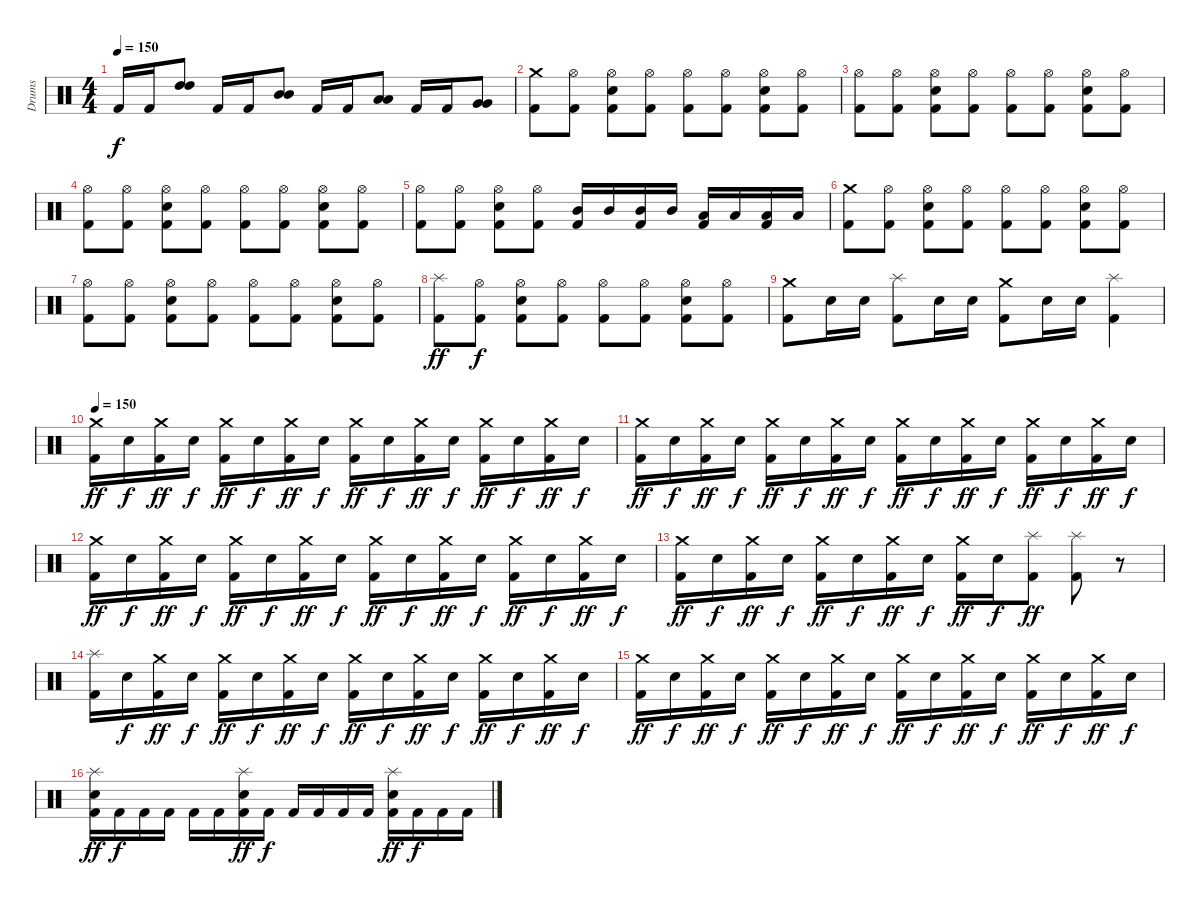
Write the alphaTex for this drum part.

\track ("Drums" "Drums") {instrument percussion}
\staff {score}
\articulation defaults
\ts (4 4)
\tempo 150
\clef neutral
\ks c "Kick (hit) 2".16{dy f} "Kick (hit) 2".16
("High Tom (hit)" "High Tom (hit)").8 "Kick (hit) 2".16 "Kick (hit) 2".16 ("Mid Tom (hit)" "Mid Tom (hit)").8 "Kick (hit) 2".16 "Kick (hit) 2".16 ("Low Tom (hit)" "Low Tom (hit)").8 "Kick (hit) 2".16 "Kick (hit) 2".16 ("Very Low Tom (hit)" "Very Low Tom (hit)").8 |
("Crash medium (hit)" "Kick (hit) 2").8 ("Hi-Hat (open)" "Kick (hit) 2").8 ("Hi-Hat (open)" "Electric Snare (hit)" "Kick (hit) 2").8 ("Hi-Hat (open)" "Kick (hit) 2").8 ("Hi-Hat (open)" "Kick (hit) 2").8 ("Hi-Hat (open)" "Kick (hit) 2").8 ("Hi-Hat (open)" "Electric Snare (hit)" "Kick (hit) 2").8 ("Hi-Hat (open)" "Kick (hit) 2").8 |
("Hi-Hat (open)" "Kick (hit) 2").8 ("Hi-Hat (open)" "Kick (hit) 2").8 ("Hi-Hat (open)" "Electric Snare (hit)" "Kick (hit) 2").8 ("Hi-Hat (open)" "Kick (hit) 2").8 ("Hi-Hat (open)" "Kick (hit) 2").8 ("Hi-Hat (open)" "Kick (hit) 2").8 ("Hi-Hat (open)" "Electric Snare (hit)" "Kick (hit) 2").8 ("Hi-Hat (open)" "Kick (hit) 2").8 |
("Hi-Hat (open)" "Kick (hit) 2").8 ("Hi-Hat (open)" "Kick (hit) 2").8 ("Hi-Hat (open)" "Electric Snare (hit)" "Kick (hit) 2").8 ("Hi-Hat (open)" "Kick (hit) 2").8 ("Hi-Hat (open)" "Kick (hit) 2").8 ("Hi-Hat (open)" "Kick (hit) 2").8 ("Hi-Hat (open)" "Electric Snare (hit)" "Kick (hit) 2").8 ("Hi-Hat (open)" "Kick (hit) 2").8 |
("Hi-Hat (open)" "Kick (hit) 2").8 ("Hi-Hat (open)" "Kick (hit) 2").8 ("Hi-Hat (open)" "Electric Snare (hit)" "Kick (hit) 2").8 ("Hi-Hat (open)" "Kick (hit) 2").8 ("Mid Tom (hit)" "Kick (hit) 2").16 "Mid Tom (hit)".16 ("Mid Tom (hit)" "Kick (hit) 2").16 "Mid Tom (hit)".16 ("Low Tom (hit)" "Kick (hit) 2").16 "Low Tom (hit)".16 ("Low Tom (hit)" "Kick (hit) 2").16 "Low Tom (hit)".16 |
("Crash medium (hit)" "Kick (hit) 2").8 ("Hi-Hat (open)" "Kick (hit) 2").8 ("Hi-Hat (open)" "Electric Snare (hit)" "Kick (hit) 2").8 ("Hi-Hat (open)" "Kick (hit) 2").8 ("Hi-Hat (open)" "Kick (hit) 2").8 ("Hi-Hat (open)" "Kick (hit) 2").8 ("Hi-Hat (open)" "Electric Snare (hit)" "Kick (hit) 2").8 ("Hi-Hat (open)" "Kick (hit) 2").8 |
("Hi-Hat (open)" "Kick (hit) 2").8 ("Hi-Hat (open)" "Kick (hit) 2").8 ("Hi-Hat (open)" "Electric Snare (hit)" "Kick (hit) 2").8 ("Hi-Hat (open)" "Kick (hit) 2").8 ("Hi-Hat (open)" "Kick (hit) 2").8 ("Hi-Hat (open)" "Kick (hit) 2").8 ("Hi-Hat (open)" "Electric Snare (hit)" "Kick (hit) 2").8 ("Hi-Hat (open)" "Kick (hit) 2").8 |
("Splash (hit)" "Kick (hit) 2").8{dy ff} ("Hi-Hat (open)" "Kick (hit) 2").8{dy f} ("Hi-Hat (open)" "Electric Snare (hit)" "Kick (hit) 2").8 ("Hi-Hat (open)" "Kick (hit) 2").8 ("Hi-Hat (open)" "Kick (hit) 2").8 ("Hi-Hat (open)" "Kick (hit) 2").8 ("Hi-Hat (open)" "Electric Snare (hit)" "Kick (hit) 2").8 ("Hi-Hat (open)" "Kick (hit) 2").8 |
("Crash medium (hit)" "Kick (hit) 2").8 "Electric Snare (hit)".16 "Electric Snare (hit)".16 ("Splash (hit)" "Kick (hit) 2").8 "Electric Snare (hit)".16 "Electric Snare (hit)".16 ("Crash medium (hit)" "Kick (hit) 2").8 "Electric Snare (hit)".16 "Electric Snare (hit)".16 ("Splash (hit)" "Kick (hit) 2").4 |
\tempo 150
("Crash medium (hit)" "Kick (hit) 2").16{dy ff} "Electric Snare (hit)".16{dy f} ("Crash medium (hit)" "Kick (hit) 2").16{dy ff} "Electric Snare (hit)".16{dy f} ("Crash medium (hit)" "Kick (hit) 2").16{dy ff} "Electric Snare (hit)".16{dy f} ("Crash medium (hit)" "Kick (hit) 2").16{dy ff} "Electric Snare (hit)".16{dy f} ("Crash medium (hit)" "Kick (hit) 2").16{dy ff} "Electric Snare (hit)".16{dy f} ("Crash medium (hit)" "Kick (hit) 2").16{dy ff} "Electric Snare (hit)".16{dy f} ("Crash medium (hit)" "Kick (hit) 2").16{dy ff} "Electric Snare (hit)".16{dy f} ("Crash medium (hit)" "Kick (hit) 2").16{dy ff} "Electric Snare (hit)".16{dy f} |
("Crash medium (hit)" "Kick (hit) 2").16{dy ff} "Electric Snare (hit)".16{dy f} ("Crash medium (hit)" "Kick (hit) 2").16{dy ff} "Electric Snare (hit)".16{dy f} ("Crash medium (hit)" "Kick (hit) 2").16{dy ff} "Electric Snare (hit)".16{dy f} ("Crash medium (hit)" "Kick (hit) 2").16{dy ff} "Electric Snare (hit)".16{dy f} ("Crash medium (hit)" "Kick (hit) 2").16{dy ff} "Electric Snare (hit)".16{dy f} ("Crash medium (hit)" "Kick (hit) 2").16{dy ff} "Electric Snare (hit)".16{dy f} ("Crash medium (hit)" "Kick (hit) 2").16{dy ff} "Electric Snare (hit)".16{dy f} ("Crash medium (hit)" "Kick (hit) 2").16{dy ff} "Electric Snare (hit)".16{dy f} |
("Crash medium (hit)" "Kick (hit) 2").16{dy ff} "Electric Snare (hit)".16{dy f} ("Crash medium (hit)" "Kick (hit) 2").16{dy ff} "Electric Snare (hit)".16{dy f} ("Crash medium (hit)" "Kick (hit) 2").16{dy ff} "Electric Snare (hit)".16{dy f} ("Crash medium (hit)" "Kick (hit) 2").16{dy ff} "Electric Snare (hit)".16{dy f} ("Crash medium (hit)" "Kick (hit) 2").16{dy ff} "Electric Snare (hit)".16{dy f} ("Crash medium (hit)" "Kick (hit) 2").16{dy ff} "Electric Snare (hit)".16{dy f} ("Crash medium (hit)" "Kick (hit) 2").16{dy ff} "Electric Snare (hit)".16{dy f} ("Crash medium (hit)" "Kick (hit) 2").16{dy ff} "Electric Snare (hit)".16{dy f} |
("Crash medium (hit)" "Kick (hit) 2").16{dy ff} "Electric Snare (hit)".16{dy f} ("Crash medium (hit)" "Kick (hit) 2").16{dy ff} "Electric Snare (hit)".16{dy f} ("Crash medium (hit)" "Kick (hit) 2").16{dy ff} "Electric Snare (hit)".16{dy f} ("Crash medium (hit)" "Kick (hit) 2").16{dy ff} "Electric Snare (hit)".16{dy f} ("Crash medium (hit)" "Kick (hit) 2").16{dy ff} "Electric Snare (hit)".16{dy f} ("Splash (hit)" "Kick (hit) 2").8{dy ff} ("Splash (hit)" "Kick (hit) 2").8 r.8 |
("Splash (hit)" "Kick (hit) 2").16 "Electric Snare (hit)".16{dy f} ("Crash medium (hit)" "Kick (hit) 2").16{dy ff} "Electric Snare (hit)".16{dy f} ("Crash medium (hit)" "Kick (hit) 2").16{dy ff} "Electric Snare (hit)".16{dy f} ("Crash medium (hit)" "Kick (hit) 2").16{dy ff} "Electric Snare (hit)".16{dy f} ("Crash medium (hit)" "Kick (hit) 2").16{dy ff} "Electric Snare (hit)".16{dy f} ("Crash medium (hit)" "Kick (hit) 2").16{dy ff} "Electric Snare (hit)".16{dy f} ("Crash medium (hit)" "Kick (hit) 2").16{dy ff} "Electric Snare (hit)".16{dy f} ("Crash medium (hit)" "Kick (hit) 2").16{dy ff} "Electric Snare (hit)".16{dy f} |
("Crash medium (hit)" "Kick (hit) 2").16{dy ff} "Electric Snare (hit)".16{dy f} ("Crash medium (hit)" "Kick (hit) 2").16{dy ff} "Electric Snare (hit)".16{dy f} ("Crash medium (hit)" "Kick (hit) 2").16{dy ff} "Electric Snare (hit)".16{dy f} ("Crash medium (hit)" "Kick (hit) 2").16{dy ff} "Electric Snare (hit)".16{dy f} ("Crash medium (hit)" "Kick (hit) 2").16{dy ff} "Electric Snare (hit)".16{dy f} ("Crash medium (hit)" "Kick (hit) 2").16{dy ff} "Electric Snare (hit)".16{dy f} ("Crash medium (hit)" "Kick (hit) 2").16{dy ff} "Electric Snare (hit)".16{dy f} ("Crash medium (hit)" "Kick (hit) 2").16{dy ff} "Electric Snare (hit)".16{dy f} |
("Splash (hit)" "Electric Snare (hit)" "Kick (hit) 2").16{dy ff} "Kick (hit) 2".16{dy f} "Kick (hit) 2".16 "Kick (hit) 2".16 "Kick (hit) 2".16 "Kick (hit) 2".16 ("Splash (hit)" "Electric Snare (hit)" "Kick (hit) 2").16{dy ff} "Kick (hit) 2".16{dy f} "Kick (hit) 2".16 "Kick (hit) 2".16 "Kick (hit) 2".16 "Kick (hit) 2".16 ("Splash (hit)" "Electric Snare (hit)" "Kick (hit) 2").16{dy ff} "Kick (hit) 2".16{dy f} "Kick (hit) 2".16 "Kick (hit) 2".16
